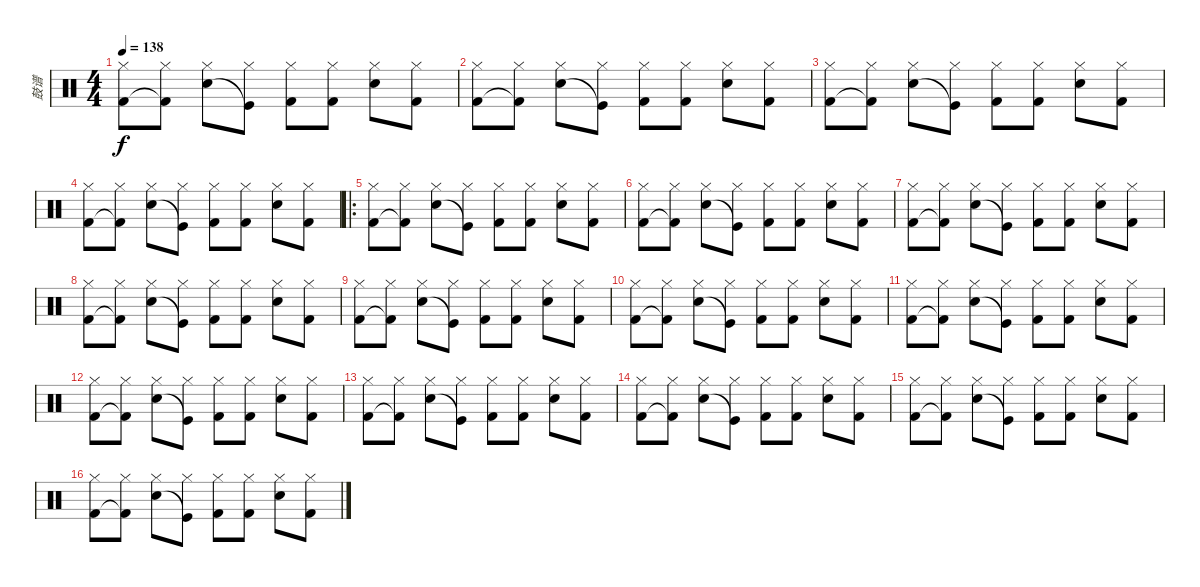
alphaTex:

\track ("鼓谱" "鼓谱") {instrument percussion}
\staff {score}
\articulation defaults
\ts (4 4)
\tempo 138
\clef neutral
\ks c
("Kick (hit) 2" "Hi-Hat (closed)").8{dy f} ("Kick (hit) 2"{t} "Hi-Hat (closed)").8 ("Snare (hit) 2" "Hi-Hat (closed)").8 ("Kick (hit)"{t} "Hi-Hat (closed)").8 ("Kick (hit) 2" "Hi-Hat (closed)").8 ("Kick (hit) 2" "Hi-Hat (closed)").8 ("Snare (hit) 2" "Hi-Hat (closed)").8 ("Kick (hit) 2" "Hi-Hat (closed)").8 |
("Kick (hit) 2" "Hi-Hat (closed)").8 ("Kick (hit) 2"{t} "Hi-Hat (closed)").8 ("Snare (hit) 2" "Hi-Hat (closed)").8 ("Kick (hit)"{t} "Hi-Hat (closed)").8 ("Kick (hit) 2" "Hi-Hat (closed)").8 ("Kick (hit) 2" "Hi-Hat (closed)").8 ("Snare (hit) 2" "Hi-Hat (closed)").8 ("Kick (hit) 2" "Hi-Hat (closed)").8 |
("Kick (hit) 2" "Hi-Hat (closed)").8 ("Kick (hit) 2"{t} "Hi-Hat (closed)").8 ("Snare (hit) 2" "Hi-Hat (closed)").8 ("Kick (hit)"{t} "Hi-Hat (closed)").8 ("Kick (hit) 2" "Hi-Hat (closed)").8 ("Kick (hit) 2" "Hi-Hat (closed)").8 ("Snare (hit) 2" "Hi-Hat (closed)").8 ("Kick (hit) 2" "Hi-Hat (closed)").8 |
("Kick (hit) 2" "Hi-Hat (closed)").8 ("Kick (hit) 2"{t} "Hi-Hat (closed)").8 ("Snare (hit) 2" "Hi-Hat (closed)").8 ("Kick (hit)"{t} "Hi-Hat (closed)").8 ("Kick (hit) 2" "Hi-Hat (closed)").8 ("Kick (hit) 2" "Hi-Hat (closed)").8 ("Snare (hit) 2" "Hi-Hat (closed)").8 ("Kick (hit) 2" "Hi-Hat (closed)").8 |
\ro
("Kick (hit) 2" "Hi-Hat (closed)").8 ("Kick (hit) 2"{t} "Hi-Hat (closed)").8 ("Snare (hit) 2" "Hi-Hat (closed)").8 ("Kick (hit)"{t} "Hi-Hat (closed)").8 ("Kick (hit) 2" "Hi-Hat (closed)").8 ("Kick (hit) 2" "Hi-Hat (closed)").8 ("Snare (hit) 2" "Hi-Hat (closed)").8 ("Kick (hit) 2" "Hi-Hat (closed)").8 |
("Kick (hit) 2" "Hi-Hat (closed)").8 ("Kick (hit) 2"{t} "Hi-Hat (closed)").8 ("Snare (hit) 2" "Hi-Hat (closed)").8 ("Kick (hit)"{t} "Hi-Hat (closed)").8 ("Kick (hit) 2" "Hi-Hat (closed)").8 ("Kick (hit) 2" "Hi-Hat (closed)").8 ("Snare (hit) 2" "Hi-Hat (closed)").8 ("Kick (hit) 2" "Hi-Hat (closed)").8 |
("Kick (hit) 2" "Hi-Hat (closed)").8 ("Kick (hit) 2"{t} "Hi-Hat (closed)").8 ("Snare (hit) 2" "Hi-Hat (closed)").8 ("Kick (hit)"{t} "Hi-Hat (closed)").8 ("Kick (hit) 2" "Hi-Hat (closed)").8 ("Kick (hit) 2" "Hi-Hat (closed)").8 ("Snare (hit) 2" "Hi-Hat (closed)").8 ("Kick (hit) 2" "Hi-Hat (closed)").8 |
("Kick (hit) 2" "Hi-Hat (closed)").8 ("Kick (hit) 2"{t} "Hi-Hat (closed)").8 ("Snare (hit) 2" "Hi-Hat (closed)").8 ("Kick (hit)"{t} "Hi-Hat (closed)").8 ("Kick (hit) 2" "Hi-Hat (closed)").8 ("Kick (hit) 2" "Hi-Hat (closed)").8 ("Snare (hit) 2" "Hi-Hat (closed)").8 ("Kick (hit) 2" "Hi-Hat (closed)").8 |
("Kick (hit) 2" "Hi-Hat (closed)").8 ("Kick (hit) 2"{t} "Hi-Hat (closed)").8 ("Snare (hit) 2" "Hi-Hat (closed)").8 ("Kick (hit)"{t} "Hi-Hat (closed)").8 ("Kick (hit) 2" "Hi-Hat (closed)").8 ("Kick (hit) 2" "Hi-Hat (closed)").8 ("Snare (hit) 2" "Hi-Hat (closed)").8 ("Kick (hit) 2" "Hi-Hat (closed)").8 |
("Kick (hit) 2" "Hi-Hat (closed)").8 ("Kick (hit) 2"{t} "Hi-Hat (closed)").8 ("Snare (hit) 2" "Hi-Hat (closed)").8 ("Kick (hit)"{t} "Hi-Hat (closed)").8 ("Kick (hit) 2" "Hi-Hat (closed)").8 ("Kick (hit) 2" "Hi-Hat (closed)").8 ("Snare (hit) 2" "Hi-Hat (closed)").8 ("Kick (hit) 2" "Hi-Hat (closed)").8 |
("Kick (hit) 2" "Hi-Hat (closed)").8 ("Kick (hit) 2"{t} "Hi-Hat (closed)").8 ("Snare (hit) 2" "Hi-Hat (closed)").8 ("Kick (hit)"{t} "Hi-Hat (closed)").8 ("Kick (hit) 2" "Hi-Hat (closed)").8 ("Kick (hit) 2" "Hi-Hat (closed)").8 ("Snare (hit) 2" "Hi-Hat (closed)").8 ("Kick (hit) 2" "Hi-Hat (closed)").8 |
("Kick (hit) 2" "Hi-Hat (closed)").8 ("Kick (hit) 2"{t} "Hi-Hat (closed)").8 ("Snare (hit) 2" "Hi-Hat (closed)").8 ("Kick (hit)"{t} "Hi-Hat (closed)").8 ("Kick (hit) 2" "Hi-Hat (closed)").8 ("Kick (hit) 2" "Hi-Hat (closed)").8 ("Snare (hit) 2" "Hi-Hat (closed)").8 ("Kick (hit) 2" "Hi-Hat (closed)").8 |
("Kick (hit) 2" "Hi-Hat (closed)").8 ("Kick (hit) 2"{t} "Hi-Hat (closed)").8 ("Snare (hit) 2" "Hi-Hat (closed)").8 ("Kick (hit)"{t} "Hi-Hat (closed)").8 ("Kick (hit) 2" "Hi-Hat (closed)").8 ("Kick (hit) 2" "Hi-Hat (closed)").8 ("Snare (hit) 2" "Hi-Hat (closed)").8 ("Kick (hit) 2" "Hi-Hat (closed)").8 |
("Kick (hit) 2" "Hi-Hat (closed)").8 ("Kick (hit) 2"{t} "Hi-Hat (closed)").8 ("Snare (hit) 2" "Hi-Hat (closed)").8 ("Kick (hit)"{t} "Hi-Hat (closed)").8 ("Kick (hit) 2" "Hi-Hat (closed)").8 ("Kick (hit) 2" "Hi-Hat (closed)").8 ("Snare (hit) 2" "Hi-Hat (closed)").8 ("Kick (hit) 2" "Hi-Hat (closed)").8 |
("Kick (hit) 2" "Hi-Hat (closed)").8 ("Kick (hit) 2"{t} "Hi-Hat (closed)").8 ("Snare (hit) 2" "Hi-Hat (closed)").8 ("Kick (hit)"{t} "Hi-Hat (closed)").8 ("Kick (hit) 2" "Hi-Hat (closed)").8 ("Kick (hit) 2" "Hi-Hat (closed)").8 ("Snare (hit) 2" "Hi-Hat (closed)").8 ("Kick (hit) 2" "Hi-Hat (closed)").8 |
("Kick (hit) 2" "Hi-Hat (closed)").8 ("Kick (hit) 2"{t} "Hi-Hat (closed)").8 ("Snare (hit) 2" "Hi-Hat (closed)").8 ("Kick (hit)"{t} "Hi-Hat (closed)").8 ("Kick (hit) 2" "Hi-Hat (closed)").8 ("Kick (hit) 2" "Hi-Hat (closed)").8 ("Snare (hit) 2" "Hi-Hat (closed)").8 ("Kick (hit) 2" "Hi-Hat (closed)").8
